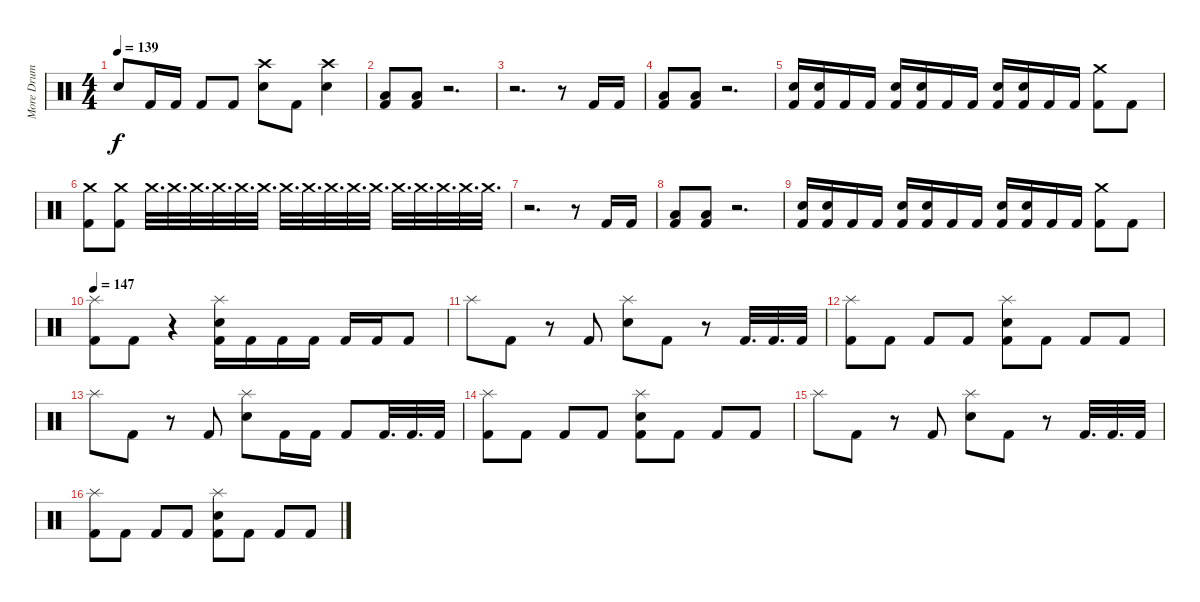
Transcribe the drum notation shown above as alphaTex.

\track ("More Drum Sound" "More Drum ") {instrument percussion}
\staff {score}
\articulation defaults
\ts (4 4)
\tempo 139
\clef neutral
\ks c "Snare (hit) 2".8{dy f} "Kick (hit) 2".16 "Kick (hit) 2".16 "Kick (hit) 2".8 "Kick (hit) 2".8
("Crash high (hit)" "Snare (hit) 2").8 "Kick (hit) 2".8 ("Crash high (hit)" "Snare (hit) 2").4 |
("Low Floor Tom (hit)" "Kick (hit) 2").8 ("Low Floor Tom (hit)" "Kick (hit) 2").8 r.2{d} |
r.2{d} r.8 "Kick (hit) 2".16 "Kick (hit) 2".16 |
("Low Floor Tom (hit)" "Kick (hit) 2").8 ("Low Floor Tom (hit)" "Kick (hit) 2").8 r.2{d} |
("Snare (hit) 2" "Kick (hit) 2").16 ("Snare (hit) 2" "Kick (hit) 2").16 "Kick (hit) 2".16 "Kick (hit) 2".16 ("Snare (hit) 2" "Kick (hit) 2").16 ("Snare (hit) 2" "Kick (hit) 2").16 "Kick (hit) 2".16 "Kick (hit) 2".16 ("Snare (hit) 2" "Kick (hit) 2").16 ("Snare (hit) 2" "Kick (hit) 2").16 "Kick (hit) 2".16 "Kick (hit) 2".16 ("Crash medium (hit)" "Kick (hit) 2").8 "Kick (hit) 2".8 |
("Crash medium (hit)" "Kick (hit) 2").8 ("Crash medium (hit)" "Kick (hit) 2").8 "Crash medium (hit)".32{d volume 2} "Crash medium (hit)".32{d volume 10} "Crash medium (hit)".32{d} "Crash medium (hit)".32{d} "Crash medium (hit)".32{d} "Crash medium (hit)".32{d} "Crash medium (hit)".32{d} "Crash medium (hit)".32{d} "Crash medium (hit)".32{d} "Crash medium (hit)".32{d} "Crash medium (hit)".32{d} "Crash medium (hit)".32{d} "Crash medium (hit)".32{d} "Crash medium (hit)".32{d} "Crash medium (hit)".32{d} "Crash medium (hit)".32{d} |
r.2{d volume 16} r.8 "Kick (hit) 2".16 "Kick (hit) 2".16 |
("Low Floor Tom (hit)" "Kick (hit) 2").8 ("Low Floor Tom (hit)" "Kick (hit) 2").8 r.2{d} |
("Snare (hit) 2" "Kick (hit) 2").16 ("Snare (hit) 2" "Kick (hit) 2").16 "Kick (hit) 2".16 "Kick (hit) 2".16 ("Snare (hit) 2" "Kick (hit) 2").16 ("Snare (hit) 2" "Kick (hit) 2").16 "Kick (hit) 2".16 "Kick (hit) 2".16 ("Snare (hit) 2" "Kick (hit) 2").16 ("Snare (hit) 2" "Kick (hit) 2").16 "Kick (hit) 2".16 "Kick (hit) 2".16 ("Crash medium (hit)" "Kick (hit) 2").8 "Kick (hit) 2".8 |
\tempo 147
("Splash (hit)" "Kick (hit) 2").8 "Kick (hit) 2".8 r.4 ("Splash (hit)" "Snare (hit) 2" "Kick (hit) 2").16 "Kick (hit) 2".16 "Kick (hit) 2".16 "Kick (hit) 2".16 "Kick (hit) 2".16 "Kick (hit) 2".16 "Kick (hit) 2".8 |
"Splash (hit)".8 "Kick (hit) 2".8 r.8 "Kick (hit) 2".8 ("Splash (hit)" "Snare (hit) 2").8 "Kick (hit) 2".8 r.8 "Kick (hit) 2".32{d} "Kick (hit) 2".32{d} "Kick (hit) 2".32 |
("Splash (hit)" "Kick (hit) 2").8 "Kick (hit) 2".8 "Kick (hit) 2".8 "Kick (hit) 2".8 ("Splash (hit)" "Snare (hit) 2" "Kick (hit) 2").8 "Kick (hit) 2".8 "Kick (hit) 2".8 "Kick (hit) 2".8 |
"Splash (hit)".8 "Kick (hit) 2".8 r.8 "Kick (hit) 2".8 ("Splash (hit)" "Snare (hit) 2").8 "Kick (hit) 2".16 "Kick (hit) 2".16 "Kick (hit) 2".8 "Kick (hit) 2".32{d} "Kick (hit) 2".32{d} "Kick (hit) 2".32 |
("Splash (hit)" "Kick (hit) 2").8 "Kick (hit) 2".8 "Kick (hit) 2".8 "Kick (hit) 2".8 ("Splash (hit)" "Snare (hit) 2" "Kick (hit) 2").8 "Kick (hit) 2".8 "Kick (hit) 2".8 "Kick (hit) 2".8 |
"Splash (hit)".8 "Kick (hit) 2".8 r.8 "Kick (hit) 2".8 ("Splash (hit)" "Snare (hit) 2").8 "Kick (hit) 2".8 r.8 "Kick (hit) 2".32{d} "Kick (hit) 2".32{d} "Kick (hit) 2".32 |
("Splash (hit)" "Kick (hit) 2").8 "Kick (hit) 2".8 "Kick (hit) 2".8 "Kick (hit) 2".8 ("Splash (hit)" "Snare (hit) 2" "Kick (hit) 2").8 "Kick (hit) 2".8 "Kick (hit) 2".8 "Kick (hit) 2".8
